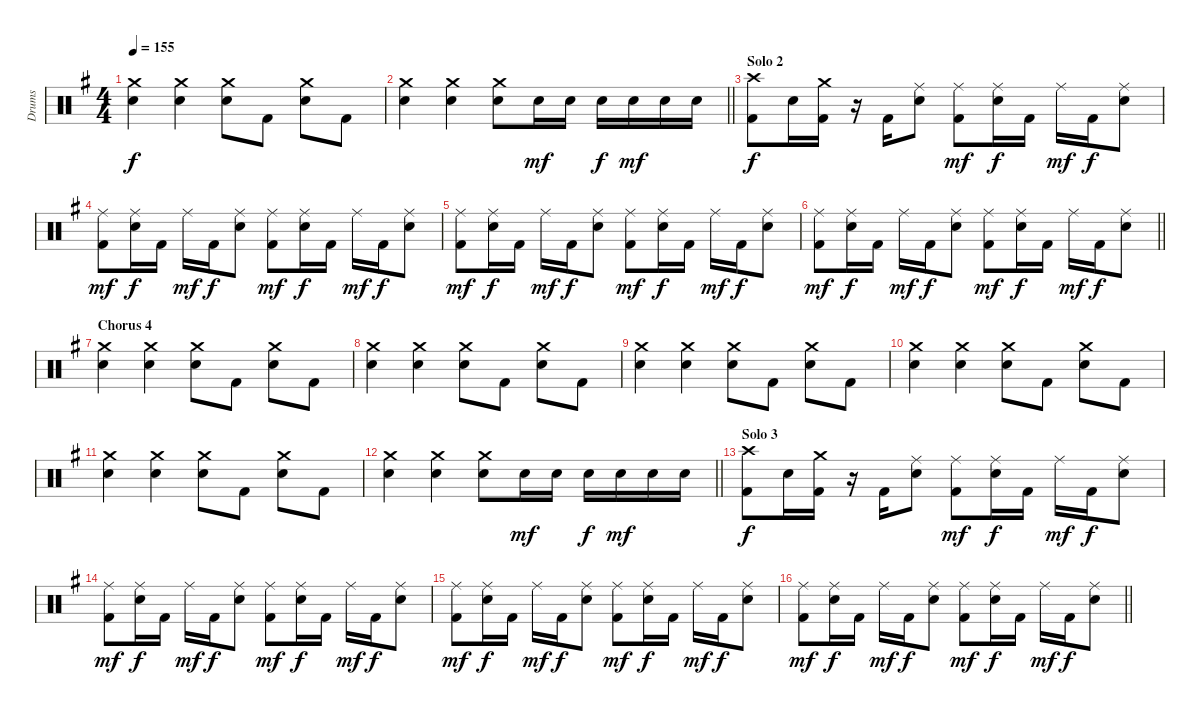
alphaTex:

\track ("Drums" "Drums") {instrument percussion}
\staff {score}
\articulation defaults
\ts (4 4)
\tempo 155
\clef neutral
\ks g
("Crash medium (hit)" "Electric Snare (hit)").4{dy f} ("Crash medium (hit)" "Electric Snare (hit)").4 ("Crash medium (hit)" "Electric Snare (hit)").8 "Kick (hit) 2".8 ("Crash medium (hit)" "Electric Snare (hit)").8 "Kick (hit) 2".8 |
\barLineRight lightlight
("Crash medium (hit)" "Electric Snare (hit)").4 ("Crash medium (hit)" "Electric Snare (hit)").4 ("Crash medium (hit)" "Electric Snare (hit)").8 "Electric Snare (hit)".16{dy mf} "Electric Snare (hit)".16 "Electric Snare (hit)".16{dy f} "Electric Snare (hit)".16{dy mf} "Electric Snare (hit)".16 "Electric Snare (hit)".16 |
\section ("" "Solo 2")
("Crash high (hit)" "Kick (hit) 2").8{dy f} "Electric Snare (hit)".16 ("Crash medium (hit)" "Kick (hit) 2").16 r.16 "Kick (hit) 2".16 ("Ride (middle)" "Electric Snare (hit)").8 ("Ride (middle)" "Kick (hit) 2").8{dy mf} ("Ride (middle)" "Electric Snare (hit)").16{dy f} "Kick (hit) 2".16 "Ride (middle)".16{dy mf} "Kick (hit) 2".16{dy f} ("Ride (middle)" "Electric Snare (hit)").8 |
("Ride (middle)" "Kick (hit) 2").8{dy mf} ("Ride (middle)" "Electric Snare (hit)").16{dy f} "Kick (hit) 2".16 "Ride (middle)".16{dy mf} "Kick (hit) 2".16{dy f} ("Ride (middle)" "Electric Snare (hit)").8 ("Ride (middle)" "Kick (hit) 2").8{dy mf} ("Ride (middle)" "Electric Snare (hit)").16{dy f} "Kick (hit) 2".16 "Ride (middle)".16{dy mf} "Kick (hit) 2".16{dy f} ("Ride (middle)" "Electric Snare (hit)").8 |
("Ride (middle)" "Kick (hit) 2").8{dy mf} ("Ride (middle)" "Electric Snare (hit)").16{dy f} "Kick (hit) 2".16 "Ride (middle)".16{dy mf} "Kick (hit) 2".16{dy f} ("Ride (middle)" "Electric Snare (hit)").8 ("Ride (middle)" "Kick (hit) 2").8{dy mf} ("Ride (middle)" "Electric Snare (hit)").16{dy f} "Kick (hit) 2".16 "Ride (middle)".16{dy mf} "Kick (hit) 2".16{dy f} ("Ride (middle)" "Electric Snare (hit)").8 |
\barLineRight lightlight
("Ride (middle)" "Kick (hit) 2").8{dy mf} ("Ride (middle)" "Electric Snare (hit)").16{dy f} "Kick (hit) 2".16 "Ride (middle)".16{dy mf} "Kick (hit) 2".16{dy f} ("Ride (middle)" "Electric Snare (hit)").8 ("Ride (middle)" "Kick (hit) 2").8{dy mf} ("Ride (middle)" "Electric Snare (hit)").16{dy f} "Kick (hit) 2".16 "Ride (middle)".16{dy mf} "Kick (hit) 2".16{dy f} ("Ride (middle)" "Electric Snare (hit)").8 |
\section ("" "Chorus 4")
("Crash medium (hit)" "Electric Snare (hit)").4 ("Crash medium (hit)" "Electric Snare (hit)").4 ("Crash medium (hit)" "Electric Snare (hit)").8 "Kick (hit) 2".8 ("Crash medium (hit)" "Electric Snare (hit)").8 "Kick (hit) 2".8 |
("Crash medium (hit)" "Electric Snare (hit)").4 ("Crash medium (hit)" "Electric Snare (hit)").4 ("Crash medium (hit)" "Electric Snare (hit)").8 "Kick (hit) 2".8 ("Crash medium (hit)" "Electric Snare (hit)").8 "Kick (hit) 2".8 |
("Crash medium (hit)" "Electric Snare (hit)").4 ("Crash medium (hit)" "Electric Snare (hit)").4 ("Crash medium (hit)" "Electric Snare (hit)").8 "Kick (hit) 2".8 ("Crash medium (hit)" "Electric Snare (hit)").8 "Kick (hit) 2".8 |
("Crash medium (hit)" "Electric Snare (hit)").4 ("Crash medium (hit)" "Electric Snare (hit)").4 ("Crash medium (hit)" "Electric Snare (hit)").8 "Kick (hit) 2".8 ("Crash medium (hit)" "Electric Snare (hit)").8 "Kick (hit) 2".8 |
("Crash medium (hit)" "Electric Snare (hit)").4 ("Crash medium (hit)" "Electric Snare (hit)").4 ("Crash medium (hit)" "Electric Snare (hit)").8 "Kick (hit) 2".8 ("Crash medium (hit)" "Electric Snare (hit)").8 "Kick (hit) 2".8 |
\barLineRight lightlight
("Crash medium (hit)" "Electric Snare (hit)").4 ("Crash medium (hit)" "Electric Snare (hit)").4 ("Crash medium (hit)" "Electric Snare (hit)").8 "Electric Snare (hit)".16{dy mf} "Electric Snare (hit)".16 "Electric Snare (hit)".16{dy f} "Electric Snare (hit)".16{dy mf} "Electric Snare (hit)".16 "Electric Snare (hit)".16 |
\section ("" "Solo 3")
("Crash high (hit)" "Kick (hit) 2").8{dy f} "Electric Snare (hit)".16 ("Crash medium (hit)" "Kick (hit) 2").16 r.16 "Kick (hit) 2".16 ("Ride (middle)" "Electric Snare (hit)").8 ("Ride (middle)" "Kick (hit) 2").8{dy mf} ("Ride (middle)" "Electric Snare (hit)").16{dy f} "Kick (hit) 2".16 "Ride (middle)".16{dy mf} "Kick (hit) 2".16{dy f} ("Ride (middle)" "Electric Snare (hit)").8 |
("Ride (middle)" "Kick (hit) 2").8{dy mf} ("Ride (middle)" "Electric Snare (hit)").16{dy f} "Kick (hit) 2".16 "Ride (middle)".16{dy mf} "Kick (hit) 2".16{dy f} ("Ride (middle)" "Electric Snare (hit)").8 ("Ride (middle)" "Kick (hit) 2").8{dy mf} ("Ride (middle)" "Electric Snare (hit)").16{dy f} "Kick (hit) 2".16 "Ride (middle)".16{dy mf} "Kick (hit) 2".16{dy f} ("Ride (middle)" "Electric Snare (hit)").8 |
("Ride (middle)" "Kick (hit) 2").8{dy mf} ("Ride (middle)" "Electric Snare (hit)").16{dy f} "Kick (hit) 2".16 "Ride (middle)".16{dy mf} "Kick (hit) 2".16{dy f} ("Ride (middle)" "Electric Snare (hit)").8 ("Ride (middle)" "Kick (hit) 2").8{dy mf} ("Ride (middle)" "Electric Snare (hit)").16{dy f} "Kick (hit) 2".16 "Ride (middle)".16{dy mf} "Kick (hit) 2".16{dy f} ("Ride (middle)" "Electric Snare (hit)").8 |
\barLineRight lightlight
("Ride (middle)" "Kick (hit) 2").8{dy mf} ("Ride (middle)" "Electric Snare (hit)").16{dy f} "Kick (hit) 2".16 "Ride (middle)".16{dy mf} "Kick (hit) 2".16{dy f} ("Ride (middle)" "Electric Snare (hit)").8 ("Ride (middle)" "Kick (hit) 2").8{dy mf} ("Ride (middle)" "Electric Snare (hit)").16{dy f} "Kick (hit) 2".16 "Ride (middle)".16{dy mf} "Kick (hit) 2".16{dy f} ("Ride (middle)" "Electric Snare (hit)").8
